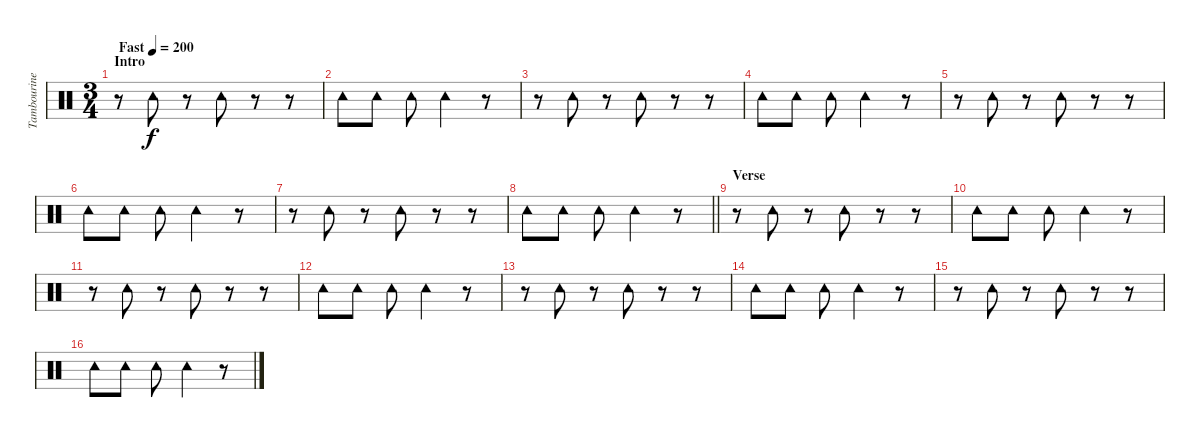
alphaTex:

\track ("Tambourine" "Tambourine") {instrument percussion}
\staff {score}
\articulation defaults
\ts (3 4)
\section ("" "Intro")
\tempo (200 "Fast")
\clef neutral
\ks c
r.8{dy f} "Tambourine (hit)".8 r.8 "Tambourine (hit)".8 r.8 r.8 |
"Tambourine (hit)".8 "Tambourine (hit)".8 "Tambourine (hit)".8 "Tambourine (hit)".4 r.8 |
r.8 "Tambourine (hit)".8 r.8 "Tambourine (hit)".8 r.8 r.8 |
"Tambourine (hit)".8 "Tambourine (hit)".8 "Tambourine (hit)".8 "Tambourine (hit)".4 r.8 |
r.8 "Tambourine (hit)".8 r.8 "Tambourine (hit)".8 r.8 r.8 |
"Tambourine (hit)".8 "Tambourine (hit)".8 "Tambourine (hit)".8 "Tambourine (hit)".4 r.8 |
r.8 "Tambourine (hit)".8 r.8 "Tambourine (hit)".8 r.8 r.8 |
\barLineRight lightlight "Tambourine (hit)".8 "Tambourine (hit)".8 "Tambourine (hit)".8 "Tambourine (hit)".4
r.8 |
\section ("" "Verse")
r.8 "Tambourine (hit)".8 r.8 "Tambourine (hit)".8 r.8 r.8 |
"Tambourine (hit)".8 "Tambourine (hit)".8 "Tambourine (hit)".8 "Tambourine (hit)".4 r.8 |
r.8 "Tambourine (hit)".8 r.8 "Tambourine (hit)".8 r.8 r.8 |
"Tambourine (hit)".8 "Tambourine (hit)".8 "Tambourine (hit)".8 "Tambourine (hit)".4 r.8 |
r.8 "Tambourine (hit)".8 r.8 "Tambourine (hit)".8 r.8 r.8 |
"Tambourine (hit)".8 "Tambourine (hit)".8 "Tambourine (hit)".8 "Tambourine (hit)".4 r.8 |
r.8 "Tambourine (hit)".8 r.8 "Tambourine (hit)".8 r.8 r.8 |
"Tambourine (hit)".8 "Tambourine (hit)".8 "Tambourine (hit)".8 "Tambourine (hit)".4 r.8
